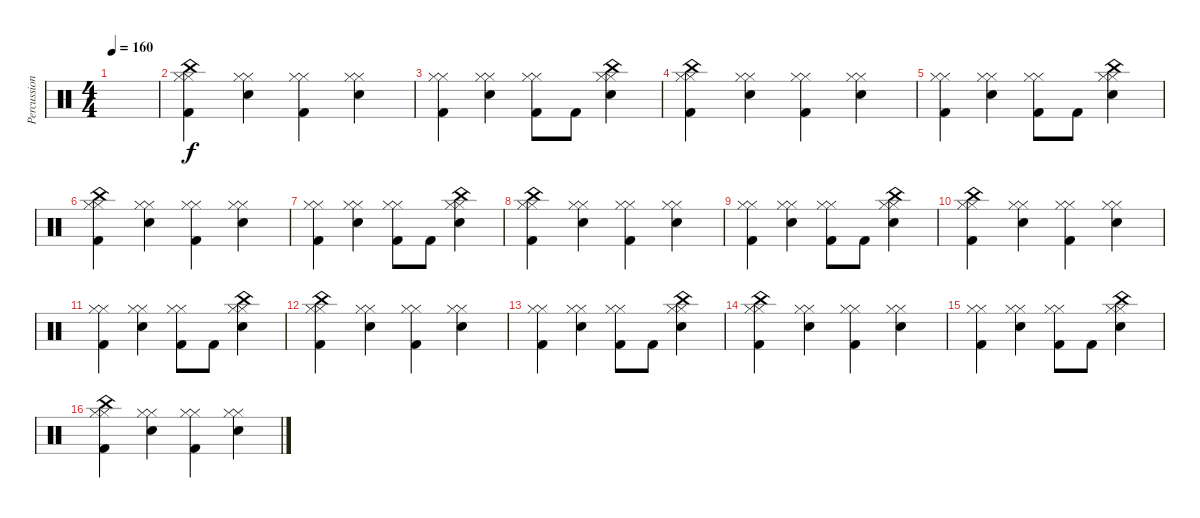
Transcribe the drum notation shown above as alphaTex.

\track ("Percussion" "Percussion") {instrument percussion}
\staff {score}
\articulation defaults
\ts (4 4)
\tempo 160
\clef neutral
\ks c
|
("Hi-Hat (closed)" "Hi-Hat (closed)" "China (hit)" "Kick (hit) 2").4 ("Hi-Hat (closed)" "Hi-Hat (closed)" "Snare (hit) 2").4 ("Hi-Hat (closed)" "Hi-Hat (closed)" "Kick (hit) 2").4 ("Hi-Hat (closed)" "Hi-Hat (closed)" "Snare (hit) 2").4 |
("Hi-Hat (closed)" "Hi-Hat (closed)" "Kick (hit) 2").4 ("Hi-Hat (closed)" "Hi-Hat (closed)" "Snare (hit) 2").4 ("Hi-Hat (closed)" "Hi-Hat (closed)" "Kick (hit) 2").8 "Kick (hit) 2".8 ("Hi-Hat (closed)" "Hi-Hat (closed)" "China (hit)" "Snare (hit) 2").4 |
("Hi-Hat (closed)" "Hi-Hat (closed)" "China (hit)" "Kick (hit) 2").4 ("Hi-Hat (closed)" "Hi-Hat (closed)" "Snare (hit) 2").4 ("Hi-Hat (closed)" "Hi-Hat (closed)" "Kick (hit) 2").4 ("Hi-Hat (closed)" "Hi-Hat (closed)" "Snare (hit) 2").4 |
("Hi-Hat (closed)" "Hi-Hat (closed)" "Kick (hit) 2").4 ("Hi-Hat (closed)" "Hi-Hat (closed)" "Snare (hit) 2").4 ("Hi-Hat (closed)" "Hi-Hat (closed)" "Kick (hit) 2").8 "Kick (hit) 2".8 ("Hi-Hat (closed)" "Hi-Hat (closed)" "China (hit)" "Snare (hit) 2").4 |
("Hi-Hat (closed)" "Hi-Hat (closed)" "China (hit)" "Kick (hit) 2").4 ("Hi-Hat (closed)" "Hi-Hat (closed)" "Snare (hit) 2").4 ("Hi-Hat (closed)" "Hi-Hat (closed)" "Kick (hit) 2").4 ("Hi-Hat (closed)" "Hi-Hat (closed)" "Snare (hit) 2").4 |
("Hi-Hat (closed)" "Hi-Hat (closed)" "Kick (hit) 2").4 ("Hi-Hat (closed)" "Hi-Hat (closed)" "Snare (hit) 2").4 ("Hi-Hat (closed)" "Hi-Hat (closed)" "Kick (hit) 2").8 "Kick (hit) 2".8 ("Hi-Hat (closed)" "Hi-Hat (closed)" "China (hit)" "Snare (hit) 2").4 |
("Hi-Hat (closed)" "Hi-Hat (closed)" "China (hit)" "Kick (hit) 2").4 ("Hi-Hat (closed)" "Hi-Hat (closed)" "Snare (hit) 2").4 ("Hi-Hat (closed)" "Hi-Hat (closed)" "Kick (hit) 2").4 ("Hi-Hat (closed)" "Hi-Hat (closed)" "Snare (hit) 2").4 |
("Hi-Hat (closed)" "Hi-Hat (closed)" "Kick (hit) 2").4 ("Hi-Hat (closed)" "Hi-Hat (closed)" "Snare (hit) 2").4 ("Hi-Hat (closed)" "Hi-Hat (closed)" "Kick (hit) 2").8 "Kick (hit) 2".8 ("Hi-Hat (closed)" "Hi-Hat (closed)" "China (hit)" "Snare (hit) 2").4 |
("Hi-Hat (closed)" "Hi-Hat (closed)" "China (hit)" "Kick (hit) 2").4 ("Hi-Hat (closed)" "Hi-Hat (closed)" "Snare (hit) 2").4 ("Hi-Hat (closed)" "Hi-Hat (closed)" "Kick (hit) 2").4 ("Hi-Hat (closed)" "Hi-Hat (closed)" "Snare (hit) 2").4 |
("Hi-Hat (closed)" "Hi-Hat (closed)" "Kick (hit) 2").4 ("Hi-Hat (closed)" "Hi-Hat (closed)" "Snare (hit) 2").4 ("Hi-Hat (closed)" "Hi-Hat (closed)" "Kick (hit) 2").8 "Kick (hit) 2".8 ("Hi-Hat (closed)" "Hi-Hat (closed)" "China (hit)" "Snare (hit) 2").4 |
("Hi-Hat (closed)" "Hi-Hat (closed)" "China (hit)" "Kick (hit) 2").4 ("Hi-Hat (closed)" "Hi-Hat (closed)" "Snare (hit) 2").4 ("Hi-Hat (closed)" "Hi-Hat (closed)" "Kick (hit) 2").4 ("Hi-Hat (closed)" "Hi-Hat (closed)" "Snare (hit) 2").4 |
("Hi-Hat (closed)" "Hi-Hat (closed)" "Kick (hit) 2").4 ("Hi-Hat (closed)" "Hi-Hat (closed)" "Snare (hit) 2").4 ("Hi-Hat (closed)" "Hi-Hat (closed)" "Kick (hit) 2").8 "Kick (hit) 2".8 ("Hi-Hat (closed)" "Hi-Hat (closed)" "China (hit)" "Snare (hit) 2").4 |
("Hi-Hat (closed)" "Hi-Hat (closed)" "China (hit)" "Kick (hit) 2").4 ("Hi-Hat (closed)" "Hi-Hat (closed)" "Snare (hit) 2").4 ("Hi-Hat (closed)" "Hi-Hat (closed)" "Kick (hit) 2").4 ("Hi-Hat (closed)" "Hi-Hat (closed)" "Snare (hit) 2").4 |
("Hi-Hat (closed)" "Hi-Hat (closed)" "Kick (hit) 2").4 ("Hi-Hat (closed)" "Hi-Hat (closed)" "Snare (hit) 2").4 ("Hi-Hat (closed)" "Hi-Hat (closed)" "Kick (hit) 2").8 "Kick (hit) 2".8 ("Hi-Hat (closed)" "Hi-Hat (closed)" "China (hit)" "Snare (hit) 2").4 |
("Hi-Hat (closed)" "Hi-Hat (closed)" "China (hit)" "Kick (hit) 2").4 ("Hi-Hat (closed)" "Hi-Hat (closed)" "Snare (hit) 2").4 ("Hi-Hat (closed)" "Hi-Hat (closed)" "Kick (hit) 2").4 ("Hi-Hat (closed)" "Hi-Hat (closed)" "Snare (hit) 2").4
